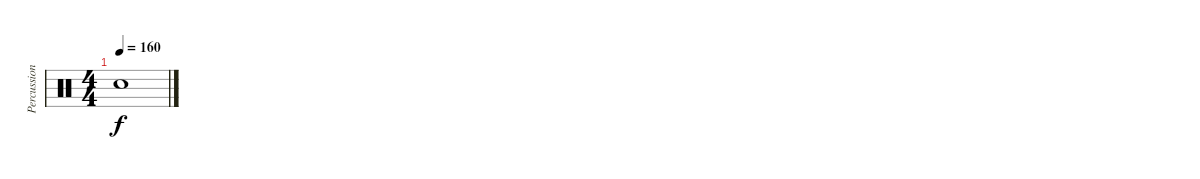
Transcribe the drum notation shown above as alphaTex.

\track ("Percussion" "Percussion") {instrument percussion}
\staff {score}
\articulation defaults
\ts (4 4)
\tempo 160
\clef neutral
\ks c "Snare (hit)"{t}.1{dy f}
